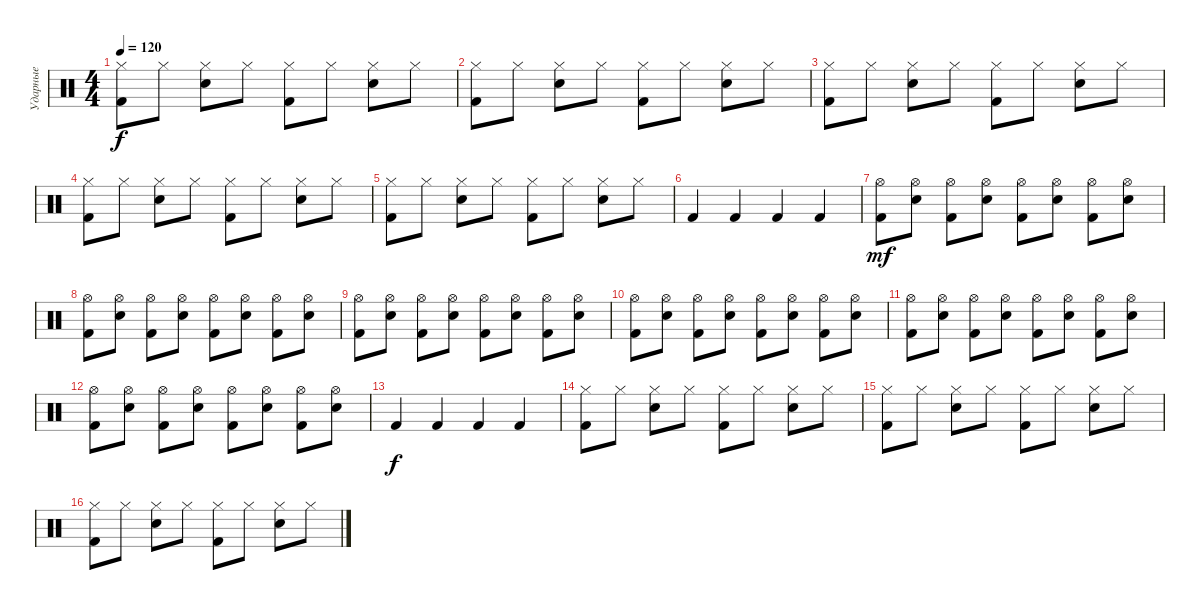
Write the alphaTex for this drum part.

\track ("Ударные" "Ударные") {instrument percussion}
\staff {score}
\articulation defaults
\ts (4 4)
\tempo 120
\clef neutral
\ks c
("Hi-Hat (closed)" "Kick (hit) 2").8{dy f} "Hi-Hat (closed)".8 ("Hi-Hat (closed)" "Electric Snare (hit)").8 "Hi-Hat (closed)".8 ("Hi-Hat (closed)" "Kick (hit) 2").8 "Hi-Hat (closed)".8 ("Hi-Hat (closed)" "Electric Snare (hit)").8 "Hi-Hat (closed)".8 |
("Hi-Hat (closed)" "Kick (hit) 2").8 "Hi-Hat (closed)".8 ("Hi-Hat (closed)" "Electric Snare (hit)").8 "Hi-Hat (closed)".8 ("Hi-Hat (closed)" "Kick (hit) 2").8 "Hi-Hat (closed)".8 ("Hi-Hat (closed)" "Electric Snare (hit)").8 "Hi-Hat (closed)".8 |
("Hi-Hat (closed)" "Kick (hit) 2").8 "Hi-Hat (closed)".8 ("Hi-Hat (closed)" "Electric Snare (hit)").8 "Hi-Hat (closed)".8 ("Hi-Hat (closed)" "Kick (hit) 2").8 "Hi-Hat (closed)".8 ("Hi-Hat (closed)" "Electric Snare (hit)").8 "Hi-Hat (closed)".8 |
("Hi-Hat (closed)" "Kick (hit) 2").8 "Hi-Hat (closed)".8 ("Hi-Hat (closed)" "Electric Snare (hit)").8 "Hi-Hat (closed)".8 ("Hi-Hat (closed)" "Kick (hit) 2").8 "Hi-Hat (closed)".8 ("Hi-Hat (closed)" "Electric Snare (hit)").8 "Hi-Hat (closed)".8 |
("Hi-Hat (closed)" "Kick (hit) 2").8 "Hi-Hat (closed)".8 ("Hi-Hat (closed)" "Electric Snare (hit)").8 "Hi-Hat (closed)".8 ("Hi-Hat (closed)" "Kick (hit) 2").8 "Hi-Hat (closed)".8 ("Hi-Hat (closed)" "Electric Snare (hit)").8 "Hi-Hat (closed)".8 |
"Kick (hit) 2".4 "Kick (hit) 2".4 "Kick (hit) 2".4 "Kick (hit) 2".4 |
("Hi-Hat (open)" "Kick (hit) 2").8{dy mf} ("Hi-Hat (open)" "Electric Snare (hit)").8 ("Hi-Hat (open)" "Kick (hit) 2").8 ("Hi-Hat (open)" "Electric Snare (hit)").8 ("Hi-Hat (open)" "Kick (hit) 2").8 ("Hi-Hat (open)" "Electric Snare (hit)").8 ("Hi-Hat (open)" "Kick (hit) 2").8 ("Hi-Hat (open)" "Electric Snare (hit)").8 |
("Hi-Hat (open)" "Kick (hit) 2").8 ("Hi-Hat (open)" "Electric Snare (hit)").8 ("Hi-Hat (open)" "Kick (hit) 2").8 ("Hi-Hat (open)" "Electric Snare (hit)").8 ("Hi-Hat (open)" "Kick (hit) 2").8 ("Hi-Hat (open)" "Electric Snare (hit)").8 ("Hi-Hat (open)" "Kick (hit) 2").8 ("Hi-Hat (open)" "Electric Snare (hit)").8 |
("Hi-Hat (open)" "Kick (hit) 2").8 ("Hi-Hat (open)" "Electric Snare (hit)").8 ("Hi-Hat (open)" "Kick (hit) 2").8 ("Hi-Hat (open)" "Electric Snare (hit)").8 ("Hi-Hat (open)" "Kick (hit) 2").8 ("Hi-Hat (open)" "Electric Snare (hit)").8 ("Hi-Hat (open)" "Kick (hit) 2").8 ("Hi-Hat (open)" "Electric Snare (hit)").8 |
("Hi-Hat (open)" "Kick (hit) 2").8 ("Hi-Hat (open)" "Electric Snare (hit)").8 ("Hi-Hat (open)" "Kick (hit) 2").8 ("Hi-Hat (open)" "Electric Snare (hit)").8 ("Hi-Hat (open)" "Kick (hit) 2").8 ("Hi-Hat (open)" "Electric Snare (hit)").8 ("Hi-Hat (open)" "Kick (hit) 2").8 ("Hi-Hat (open)" "Electric Snare (hit)").8 |
("Hi-Hat (open)" "Kick (hit) 2").8 ("Hi-Hat (open)" "Electric Snare (hit)").8 ("Hi-Hat (open)" "Kick (hit) 2").8 ("Hi-Hat (open)" "Electric Snare (hit)").8 ("Hi-Hat (open)" "Kick (hit) 2").8 ("Hi-Hat (open)" "Electric Snare (hit)").8 ("Hi-Hat (open)" "Kick (hit) 2").8 ("Hi-Hat (open)" "Electric Snare (hit)").8 |
("Hi-Hat (open)" "Kick (hit) 2").8 ("Hi-Hat (open)" "Electric Snare (hit)").8 ("Hi-Hat (open)" "Kick (hit) 2").8 ("Hi-Hat (open)" "Electric Snare (hit)").8 ("Hi-Hat (open)" "Kick (hit) 2").8 ("Hi-Hat (open)" "Electric Snare (hit)").8 ("Hi-Hat (open)" "Kick (hit) 2").8 ("Hi-Hat (open)" "Electric Snare (hit)").8 |
"Kick (hit) 2".4{dy f} "Kick (hit) 2".4 "Kick (hit) 2".4 "Kick (hit) 2".4 |
("Hi-Hat (closed)" "Kick (hit) 2").8 "Hi-Hat (closed)".8 ("Hi-Hat (closed)" "Electric Snare (hit)").8 "Hi-Hat (closed)".8 ("Hi-Hat (closed)" "Kick (hit) 2").8 "Hi-Hat (closed)".8 ("Hi-Hat (closed)" "Electric Snare (hit)").8 "Hi-Hat (closed)".8 |
("Hi-Hat (closed)" "Kick (hit) 2").8 "Hi-Hat (closed)".8 ("Hi-Hat (closed)" "Electric Snare (hit)").8 "Hi-Hat (closed)".8 ("Hi-Hat (closed)" "Kick (hit) 2").8 "Hi-Hat (closed)".8 ("Hi-Hat (closed)" "Electric Snare (hit)").8 "Hi-Hat (closed)".8 |
("Hi-Hat (closed)" "Kick (hit) 2").8 "Hi-Hat (closed)".8 ("Hi-Hat (closed)" "Electric Snare (hit)").8 "Hi-Hat (closed)".8 ("Hi-Hat (closed)" "Kick (hit) 2").8 "Hi-Hat (closed)".8 ("Hi-Hat (closed)" "Electric Snare (hit)").8 "Hi-Hat (closed)".8
